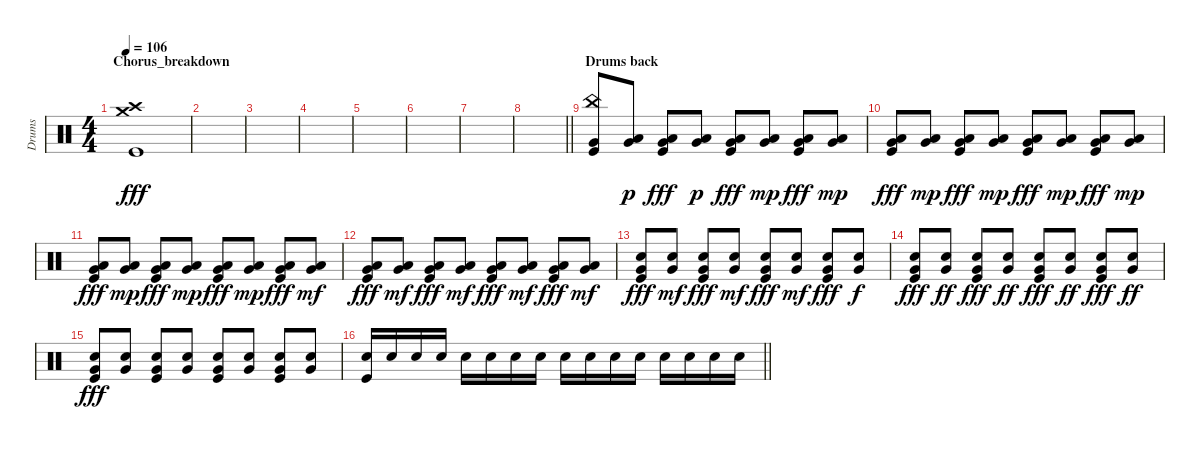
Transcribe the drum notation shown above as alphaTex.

\track ("Drums" "Drums") {instrument percussion}
\staff {score}
\articulation defaults
\ts (4 4)
\section ("" "Chorus_breakdown")
\tempo 106
\clef neutral
\ks c
("Crash medium (hit)" "Crash high (hit)" "Kick (hit)").1{dy fff} |
|
|
|
|
|
|
\barLineRight lightlight
|
\section ("" "Drums back")
("China (hit)" "Very Low Tom (hit)" "Kick (hit)").8 ("Low Tom (hit)" "Very Low Tom (hit)").8{dy p} ("Low Tom (hit)" "Very Low Tom (hit)" "Kick (hit)").8{dy fff} ("Low Tom (hit)" "Very Low Tom (hit)").8{dy p} ("Low Tom (hit)" "Very Low Tom (hit)" "Kick (hit)").8{dy fff} ("Low Tom (hit)" "Very Low Tom (hit)").8{dy mp} ("Low Tom (hit)" "Very Low Tom (hit)" "Kick (hit)").8{dy fff} ("Low Tom (hit)" "Very Low Tom (hit)").8{dy mp} |
("Low Tom (hit)" "Very Low Tom (hit)" "Kick (hit)").8{dy fff} ("Low Tom (hit)" "Very Low Tom (hit)").8{dy mp} ("Low Tom (hit)" "Very Low Tom (hit)" "Kick (hit)").8{dy fff} ("Low Tom (hit)" "Very Low Tom (hit)").8{dy mp} ("Low Tom (hit)" "Very Low Tom (hit)" "Kick (hit)").8{dy fff} ("Low Tom (hit)" "Very Low Tom (hit)").8{dy mp} ("Low Tom (hit)" "Very Low Tom (hit)" "Kick (hit)").8{dy fff} ("Low Tom (hit)" "Very Low Tom (hit)").8{dy mp} |
("Low Tom (hit)" "Very Low Tom (hit)" "Kick (hit)").8{dy fff} ("Low Tom (hit)" "Very Low Tom (hit)").8{dy mp} ("Low Tom (hit)" "Very Low Tom (hit)" "Kick (hit)").8{dy fff} ("Low Tom (hit)" "Very Low Tom (hit)").8{dy mp} ("Low Tom (hit)" "Very Low Tom (hit)" "Kick (hit)").8{dy fff} ("Low Tom (hit)" "Very Low Tom (hit)").8{dy mp} ("Low Tom (hit)" "Very Low Tom (hit)" "Kick (hit)").8{dy fff} ("Low Tom (hit)" "Very Low Tom (hit)").8{dy mf} |
("Low Tom (hit)" "Very Low Tom (hit)" "Kick (hit)").8{dy fff} ("Low Tom (hit)" "Very Low Tom (hit)").8{dy mf} ("Low Tom (hit)" "Very Low Tom (hit)" "Kick (hit)").8{dy fff} ("Low Tom (hit)" "Very Low Tom (hit)").8{dy mf} ("Low Tom (hit)" "Very Low Tom (hit)" "Kick (hit)").8{dy fff} ("Low Tom (hit)" "Very Low Tom (hit)").8{dy mf} ("Low Tom (hit)" "Very Low Tom (hit)" "Kick (hit)").8{dy fff} ("Low Tom (hit)" "Very Low Tom (hit)").8{dy mf} |
("Very Low Tom (hit)" "Snare (hit) 2" "Kick (hit)").8{dy fff} ("Very Low Tom (hit)" "Snare (hit) 2").8{dy mf} ("Very Low Tom (hit)" "Snare (hit) 2" "Kick (hit)").8{dy fff} ("Very Low Tom (hit)" "Snare (hit) 2").8{dy mf} ("Very Low Tom (hit)" "Snare (hit) 2" "Kick (hit)").8{dy fff} ("Very Low Tom (hit)" "Snare (hit) 2").8{dy mf} ("Very Low Tom (hit)" "Snare (hit) 2" "Kick (hit)").8{dy fff} ("Very Low Tom (hit)" "Snare (hit) 2").8{dy f} |
("Very Low Tom (hit)" "Snare (hit) 2" "Kick (hit)").8{dy fff} ("Very Low Tom (hit)" "Snare (hit) 2").8{dy ff} ("Very Low Tom (hit)" "Snare (hit) 2" "Kick (hit)").8{dy fff} ("Very Low Tom (hit)" "Snare (hit) 2").8{dy ff} ("Very Low Tom (hit)" "Snare (hit) 2" "Kick (hit)").8{dy fff} ("Very Low Tom (hit)" "Snare (hit) 2").8{dy ff} ("Very Low Tom (hit)" "Snare (hit) 2" "Kick (hit)").8{dy fff} ("Very Low Tom (hit)" "Snare (hit) 2").8{dy ff} |
("Very Low Tom (hit)" "Snare (hit) 2" "Kick (hit)").8{dy fff} ("Very Low Tom (hit)" "Snare (hit) 2").8 ("Very Low Tom (hit)" "Snare (hit) 2" "Kick (hit)").8 ("Very Low Tom (hit)" "Snare (hit) 2").8 ("Very Low Tom (hit)" "Snare (hit) 2" "Kick (hit)").8 ("Very Low Tom (hit)" "Snare (hit) 2").8 ("Very Low Tom (hit)" "Snare (hit) 2" "Kick (hit)").8 ("Very Low Tom (hit)" "Snare (hit) 2").8 |
\barLineRight lightlight
("Snare (hit) 2" "Kick (hit)").16 "Snare (hit) 2".16 "Snare (hit) 2".16 "Snare (hit) 2".16 "Snare (hit) 2".16 "Snare (hit) 2".16 "Snare (hit) 2".16 "Snare (hit) 2".16 "Snare (hit) 2".16 "Snare (hit) 2".16 "Snare (hit) 2".16 "Snare (hit) 2".16 "Snare (hit) 2".16 "Snare (hit) 2".16 "Snare (hit) 2".16 "Snare (hit) 2".16
